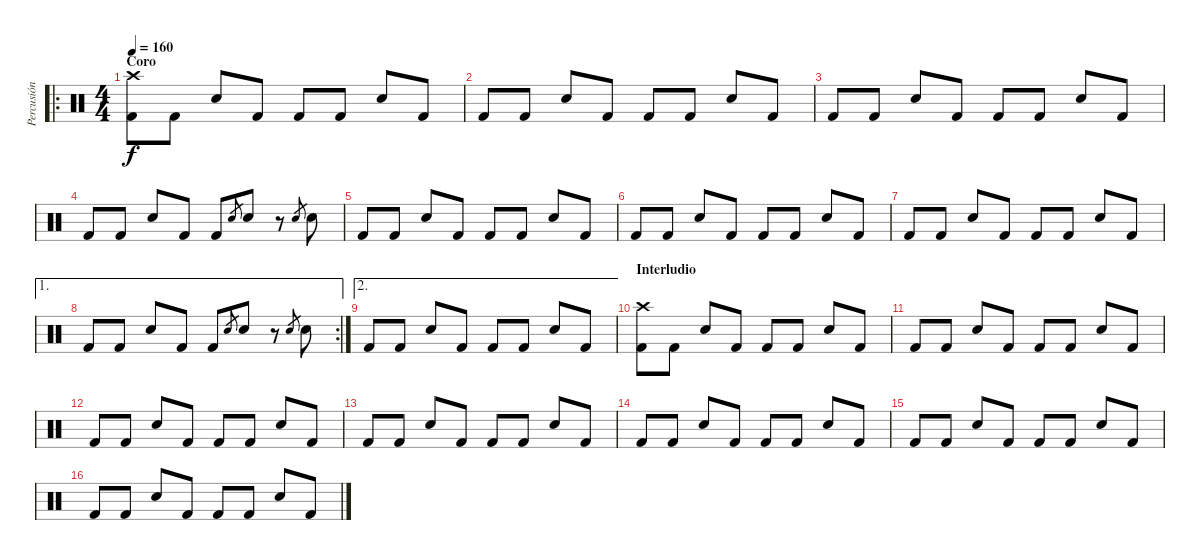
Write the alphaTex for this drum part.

\track ("Percusión" "Percusión") {instrument percussion}
\staff {score}
\articulation defaults
\ro
\ts (4 4)
\section ("" "Coro")
\tempo 160
\clef neutral
\ks c
("Kick (hit) 2" "Crash high (hit)").8{dy f} "Kick (hit) 2".8 "Electric Snare (hit)".8 "Kick (hit) 2".8 "Kick (hit) 2".8 "Kick (hit) 2".8 "Electric Snare (hit)".8 "Kick (hit) 2".8 |
"Kick (hit) 2".8 "Kick (hit) 2".8 "Electric Snare (hit)".8 "Kick (hit) 2".8 "Kick (hit) 2".8 "Kick (hit) 2".8 "Electric Snare (hit)".8 "Kick (hit) 2".8 |
"Kick (hit) 2".8 "Kick (hit) 2".8 "Electric Snare (hit)".8 "Kick (hit) 2".8 "Kick (hit) 2".8 "Kick (hit) 2".8 "Electric Snare (hit)".8 "Kick (hit) 2".8 |
"Kick (hit) 2".8 "Kick (hit) 2".8 "Electric Snare (hit)".8 "Kick (hit) 2".8 "Kick (hit) 2".8 "Snare (hit) 2".8{gr} "Electric Snare (hit)".8 r.8 "Snare (hit) 2".8{gr} "Electric Snare (hit)".8 |
"Kick (hit) 2".8 "Kick (hit) 2".8 "Electric Snare (hit)".8 "Kick (hit) 2".8 "Kick (hit) 2".8 "Kick (hit) 2".8 "Electric Snare (hit)".8 "Kick (hit) 2".8 |
"Kick (hit) 2".8 "Kick (hit) 2".8 "Electric Snare (hit)".8 "Kick (hit) 2".8 "Kick (hit) 2".8 "Kick (hit) 2".8 "Electric Snare (hit)".8 "Kick (hit) 2".8 |
"Kick (hit) 2".8 "Kick (hit) 2".8 "Electric Snare (hit)".8 "Kick (hit) 2".8 "Kick (hit) 2".8 "Kick (hit) 2".8 "Electric Snare (hit)".8 "Kick (hit) 2".8 |
\ae 1
\rc 2 "Kick (hit) 2".8 "Kick (hit) 2".8 "Electric Snare (hit)".8 "Kick (hit) 2".8 "Kick (hit) 2".8 "Snare (hit) 2".8{gr} "Electric Snare (hit)".8
r.8 "Snare (hit) 2".8{gr} "Electric Snare (hit)".8 |
\ae 2 "Kick (hit) 2".8 "Kick (hit) 2".8 "Electric Snare (hit)".8 "Kick (hit) 2".8 "Kick (hit) 2".8 "Kick (hit) 2".8 "Electric Snare (hit)".8 "Kick (hit) 2".8
|
\section ("" "Interludio")
("Kick (hit) 2" "Crash high (hit)").8 "Kick (hit) 2".8 "Electric Snare (hit)".8 "Kick (hit) 2".8 "Kick (hit) 2".8 "Kick (hit) 2".8 "Electric Snare (hit)".8 "Kick (hit) 2".8 |
"Kick (hit) 2".8 "Kick (hit) 2".8 "Electric Snare (hit)".8 "Kick (hit) 2".8 "Kick (hit) 2".8 "Kick (hit) 2".8 "Electric Snare (hit)".8 "Kick (hit) 2".8 |
"Kick (hit) 2".8 "Kick (hit) 2".8 "Electric Snare (hit)".8 "Kick (hit) 2".8 "Kick (hit) 2".8 "Kick (hit) 2".8 "Electric Snare (hit)".8 "Kick (hit) 2".8 |
"Kick (hit) 2".8 "Kick (hit) 2".8 "Electric Snare (hit)".8 "Kick (hit) 2".8 "Kick (hit) 2".8 "Kick (hit) 2".8 "Electric Snare (hit)".8 "Kick (hit) 2".8 |
"Kick (hit) 2".8 "Kick (hit) 2".8 "Electric Snare (hit)".8 "Kick (hit) 2".8 "Kick (hit) 2".8 "Kick (hit) 2".8 "Electric Snare (hit)".8 "Kick (hit) 2".8 |
"Kick (hit) 2".8 "Kick (hit) 2".8 "Electric Snare (hit)".8 "Kick (hit) 2".8 "Kick (hit) 2".8 "Kick (hit) 2".8 "Electric Snare (hit)".8 "Kick (hit) 2".8 |
"Kick (hit) 2".8 "Kick (hit) 2".8 "Electric Snare (hit)".8 "Kick (hit) 2".8 "Kick (hit) 2".8 "Kick (hit) 2".8 "Electric Snare (hit)".8 "Kick (hit) 2".8
